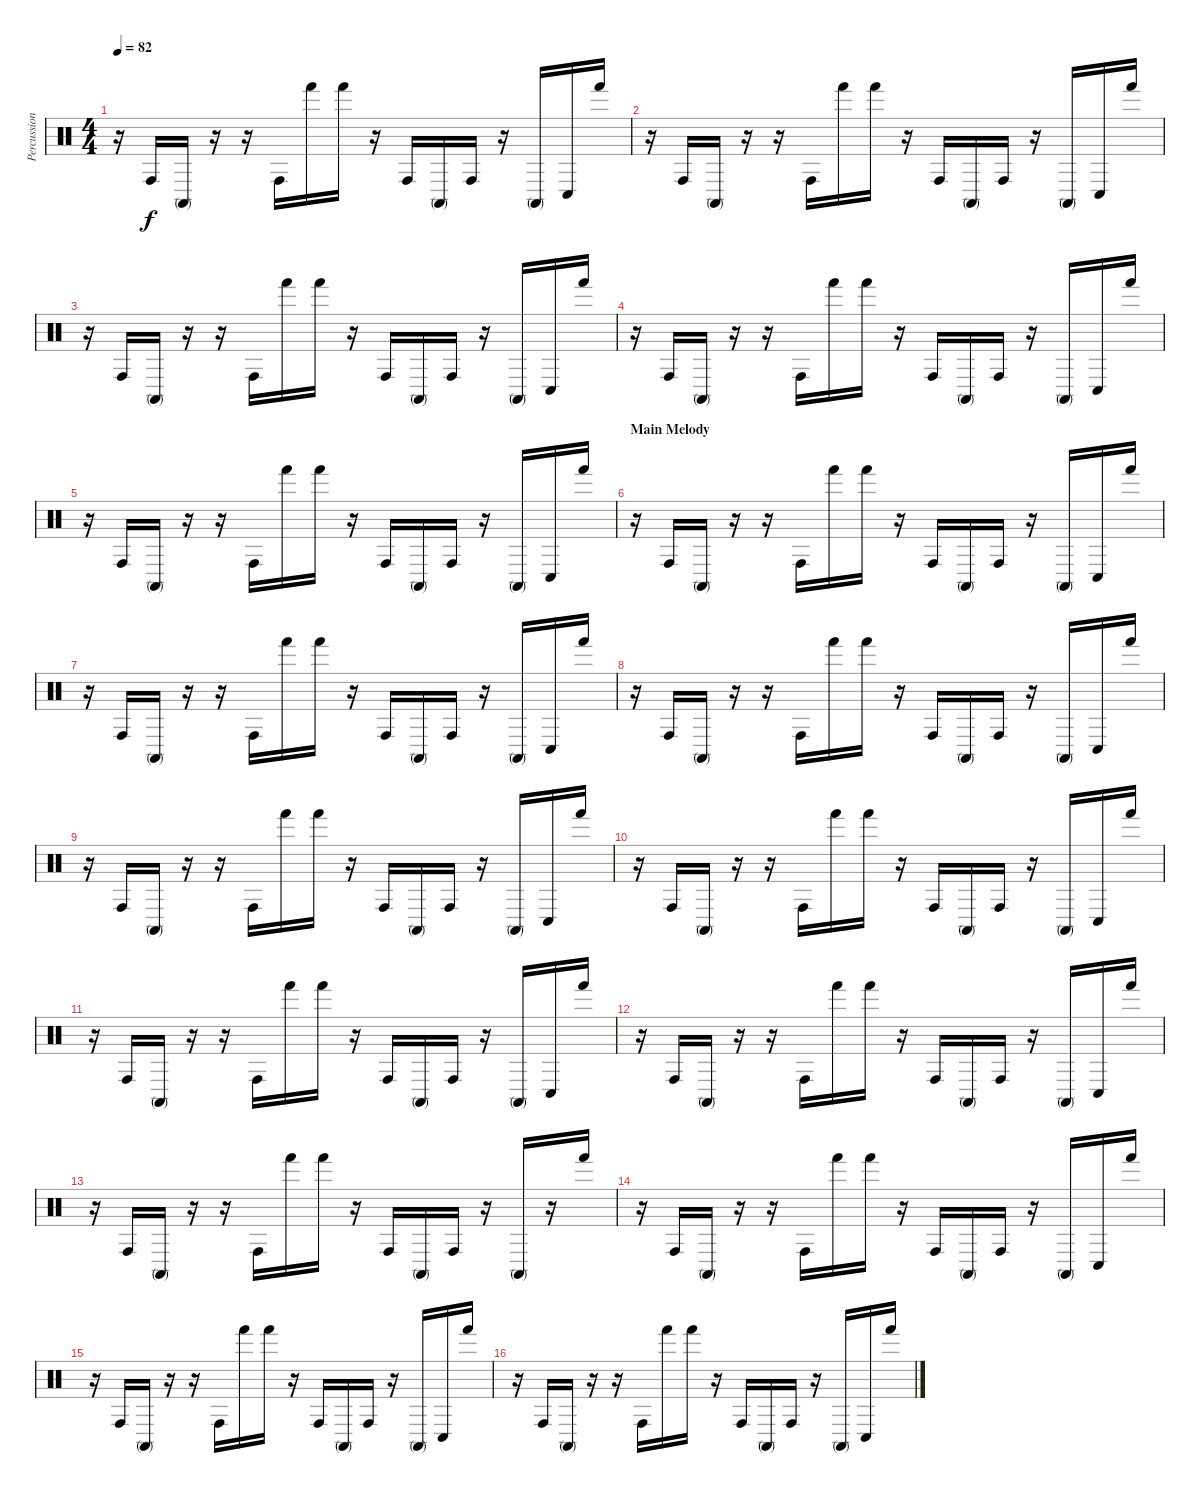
\track ("Percussion" "Percussion") {instrument percussion}
\staff {score}
\articulation defaults
\ts (4 4)
\tempo 82
\clef neutral
\ks c
r.16{dy f} "Conga high (hit)".16 "Conga high (mute)".16 r.16 r.16 "Conga high (hit)".16 "Hand (hit)".16 "Hand (hit)".16 r.16 "Conga high (hit)".16 "Conga high (mute)".16 "Conga high (hit)".16 r.16 "Conga high (mute)".16 "Conga low (hit)".16 "Hand (hit)".16 |
r.16 "Conga high (hit)".16 "Conga high (mute)".16 r.16 r.16 "Conga high (hit)".16 "Hand (hit)".16 "Hand (hit)".16 r.16 "Conga high (hit)".16 "Conga high (mute)".16 "Conga high (hit)".16 r.16 "Conga high (mute)".16 "Conga low (hit)".16 "Hand (hit)".16 |
r.16 "Conga high (hit)".16 "Conga high (mute)".16 r.16 r.16 "Conga high (hit)".16 "Hand (hit)".16 "Hand (hit)".16 r.16 "Conga high (hit)".16 "Conga high (mute)".16 "Conga high (hit)".16 r.16 "Conga high (mute)".16 "Conga low (hit)".16 "Hand (hit)".16 |
r.16 "Conga high (hit)".16 "Conga high (mute)".16 r.16 r.16 "Conga high (hit)".16 "Hand (hit)".16 "Hand (hit)".16 r.16 "Conga high (hit)".16 "Conga high (mute)".16 "Conga high (hit)".16 r.16 "Conga high (mute)".16 "Conga low (hit)".16 "Hand (hit)".16 |
r.16 "Conga high (hit)".16 "Conga high (mute)".16 r.16 r.16 "Conga high (hit)".16 "Hand (hit)".16 "Hand (hit)".16 r.16 "Conga high (hit)".16 "Conga high (mute)".16 "Conga high (hit)".16 r.16 "Conga high (mute)".16 "Conga low (hit)".16 "Hand (hit)".16 |
\section ("" "Main Melody")
r.16 "Conga high (hit)".16 "Conga high (mute)".16 r.16 r.16 "Conga high (hit)".16 "Hand (hit)".16 "Hand (hit)".16 r.16 "Conga high (hit)".16 "Conga high (mute)".16 "Conga high (hit)".16 r.16 "Conga high (mute)".16 "Conga low (hit)".16 "Hand (hit)".16 |
r.16 "Conga high (hit)".16 "Conga high (mute)".16 r.16 r.16 "Conga high (hit)".16 "Hand (hit)".16 "Hand (hit)".16 r.16 "Conga high (hit)".16 "Conga high (mute)".16 "Conga high (hit)".16 r.16 "Conga high (mute)".16 "Conga low (hit)".16 "Hand (hit)".16 |
r.16 "Conga high (hit)".16 "Conga high (mute)".16 r.16 r.16 "Conga high (hit)".16 "Hand (hit)".16 "Hand (hit)".16 r.16 "Conga high (hit)".16 "Conga high (mute)".16 "Conga high (hit)".16 r.16 "Conga high (mute)".16 "Conga low (hit)".16 "Hand (hit)".16 |
r.16 "Conga high (hit)".16 "Conga high (mute)".16 r.16 r.16 "Conga high (hit)".16 "Hand (hit)".16 "Hand (hit)".16 r.16 "Conga high (hit)".16 "Conga high (mute)".16 "Conga high (hit)".16 r.16 "Conga high (mute)".16 "Conga low (hit)".16 "Hand (hit)".16 |
r.16 "Conga high (hit)".16 "Conga high (mute)".16 r.16 r.16 "Conga high (hit)".16 "Hand (hit)".16 "Hand (hit)".16 r.16 "Conga high (hit)".16 "Conga high (mute)".16 "Conga high (hit)".16 r.16 "Conga high (mute)".16 "Conga low (hit)".16 "Hand (hit)".16 |
r.16 "Conga high (hit)".16 "Conga high (mute)".16 r.16 r.16 "Conga high (hit)".16 "Hand (hit)".16 "Hand (hit)".16 r.16 "Conga high (hit)".16 "Conga high (mute)".16 "Conga high (hit)".16 r.16 "Conga high (mute)".16 "Conga low (hit)".16 "Hand (hit)".16 |
r.16 "Conga high (hit)".16 "Conga high (mute)".16 r.16 r.16 "Conga high (hit)".16 "Hand (hit)".16 "Hand (hit)".16 r.16 "Conga high (hit)".16 "Conga high (mute)".16 "Conga high (hit)".16 r.16 "Conga high (mute)".16 "Conga low (hit)".16 "Hand (hit)".16 |
r.16 "Conga high (hit)".16 "Conga high (mute)".16 r.16 r.16 "Conga high (hit)".16 "Hand (hit)".16 "Hand (hit)".16 r.16 "Conga high (hit)".16 "Conga high (mute)".16 "Conga high (hit)".16 r.16 "Conga high (mute)".16 r.16 "Hand (hit)".16 |
r.16 "Conga high (hit)".16 "Conga high (mute)".16 r.16 r.16 "Conga high (hit)".16 "Hand (hit)".16 "Hand (hit)".16 r.16 "Conga high (hit)".16 "Conga high (mute)".16 "Conga high (hit)".16 r.16 "Conga high (mute)".16 "Conga low (hit)".16 "Hand (hit)".16 |
r.16 "Conga high (hit)".16 "Conga high (mute)".16 r.16 r.16 "Conga high (hit)".16 "Hand (hit)".16 "Hand (hit)".16 r.16 "Conga high (hit)".16 "Conga high (mute)".16 "Conga high (hit)".16 r.16 "Conga high (mute)".16 "Conga low (hit)".16 "Hand (hit)".16 |
r.16 "Conga high (hit)".16 "Conga high (mute)".16 r.16 r.16 "Conga high (hit)".16 "Hand (hit)".16 "Hand (hit)".16 r.16 "Conga high (hit)".16 "Conga high (mute)".16 "Conga high (hit)".16 r.16 "Conga high (mute)".16 "Conga low (hit)".16 "Hand (hit)".16
